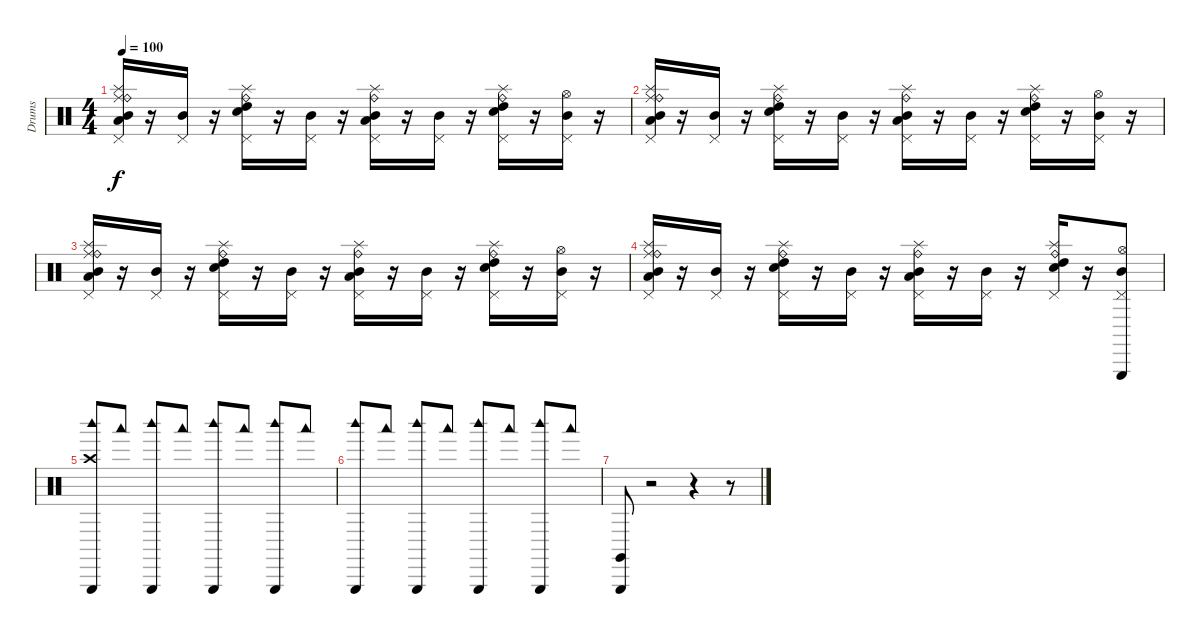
\track ("Drums" "Drums") {instrument percussion}
\staff {score}
\articulation defaults
\ts (4 4)
\tempo 100
\clef neutral
\ks c
("Ride (middle)" "Splash (hit)" "Pedal Hi-Hat (hit)" "Mid Tom (hit)" "Ride (bell)" "Low Floor Tom (hit)").16{dy f} r.16 ("Pedal Hi-Hat (hit)" "Mid Tom (hit)").16 r.16 ("Splash (hit)" "Pedal Hi-Hat (hit)" "High Tom (hit)" "Ride (bell)" "Electric Snare (hit)").16 r.16 ("Pedal Hi-Hat (hit)" "Mid Tom (hit)").16 r.16 ("Splash (hit)" "Pedal Hi-Hat (hit)" "Mid Tom (hit)" "Low Floor Tom (hit)" "Ride (bell)").16 r.16 ("Pedal Hi-Hat (hit)" "Mid Tom (hit)").16 r.16 ("Splash (hit)" "Pedal Hi-Hat (hit)" "High Tom (hit)" "Electric Snare (hit)" "Ride (bell)").16 r.16 ("Hi-Hat (open)" "Pedal Hi-Hat (hit)" "Mid Tom (hit)").16 r.16 |
("Ride (middle)" "Splash (hit)" "Pedal Hi-Hat (hit)" "Mid Tom (hit)" "Ride (bell)" "Low Floor Tom (hit)").16 r.16 ("Pedal Hi-Hat (hit)" "Mid Tom (hit)").16 r.16 ("Splash (hit)" "Pedal Hi-Hat (hit)" "High Tom (hit)" "Ride (bell)" "Electric Snare (hit)").16 r.16 ("Pedal Hi-Hat (hit)" "Mid Tom (hit)").16 r.16 ("Splash (hit)" "Pedal Hi-Hat (hit)" "Mid Tom (hit)" "Low Floor Tom (hit)" "Ride (bell)").16 r.16 ("Pedal Hi-Hat (hit)" "Mid Tom (hit)").16 r.16 ("Splash (hit)" "Pedal Hi-Hat (hit)" "High Tom (hit)" "Electric Snare (hit)" "Ride (bell)").16 r.16 ("Hi-Hat (open)" "Pedal Hi-Hat (hit)" "Mid Tom (hit)").16 r.16 |
("Ride (middle)" "Splash (hit)" "Pedal Hi-Hat (hit)" "Mid Tom (hit)" "Ride (bell)" "Low Floor Tom (hit)").16 r.16 ("Pedal Hi-Hat (hit)" "Mid Tom (hit)").16 r.16 ("Splash (hit)" "Pedal Hi-Hat (hit)" "High Tom (hit)" "Ride (bell)" "Electric Snare (hit)").16 r.16 ("Pedal Hi-Hat (hit)" "Mid Tom (hit)").16 r.16 ("Splash (hit)" "Pedal Hi-Hat (hit)" "Mid Tom (hit)" "Low Floor Tom (hit)" "Ride (bell)").16 r.16 ("Pedal Hi-Hat (hit)" "Mid Tom (hit)").16 r.16 ("Splash (hit)" "Pedal Hi-Hat (hit)" "High Tom (hit)" "Electric Snare (hit)" "Ride (bell)").16 r.16 ("Hi-Hat (open)" "Pedal Hi-Hat (hit)" "Mid Tom (hit)").16 r.16 |
("Ride (middle)" "Splash (hit)" "Pedal Hi-Hat (hit)" "Mid Tom (hit)" "Ride (bell)" "Low Floor Tom (hit)").16 r.16 ("Pedal Hi-Hat (hit)" "Mid Tom (hit)").16 r.16 ("Splash (hit)" "Pedal Hi-Hat (hit)" "High Tom (hit)" "Ride (bell)" "Electric Snare (hit)").16 r.16 ("Pedal Hi-Hat (hit)" "Mid Tom (hit)").16 r.16 ("Splash (hit)" "Pedal Hi-Hat (hit)" "Mid Tom (hit)" "Low Floor Tom (hit)" "Ride (bell)").16 r.16 ("Pedal Hi-Hat (hit)" "Mid Tom (hit)").16 r.16 ("Splash (hit)" "Pedal Hi-Hat (hit)" "High Tom (hit)" "Electric Snare (hit)" "Ride (bell)").16 r.16 ("Triangle (hit)" "Hi-Hat (open)" "Pedal Hi-Hat (hit)" "Mid Tom (hit)").8 |
("Crash high (hit)" "Triangle (hit)" "Woodblock high (hit)").8 "Woodblock low (hit)".8 ("Triangle (hit)" "Woodblock high (hit)").8 "Woodblock low (hit)".8 ("Triangle (hit)" "Woodblock high (hit)").8 "Woodblock low (hit)".8 ("Triangle (hit)" "Woodblock high (hit)").8 "Woodblock low (hit)".8 |
("Triangle (hit)" "Woodblock high (hit)").8 "Woodblock low (hit)".8 ("Triangle (hit)" "Woodblock high (hit)").8 "Woodblock low (hit)".8 ("Triangle (hit)" "Woodblock high (hit)").8 "Woodblock low (hit)".8 ("Triangle (hit)" "Woodblock high (hit)").8 "Woodblock low (hit)".8 |
("Triangle (hit)" "Claves (hit)").8 r.2 r.4 r.8
